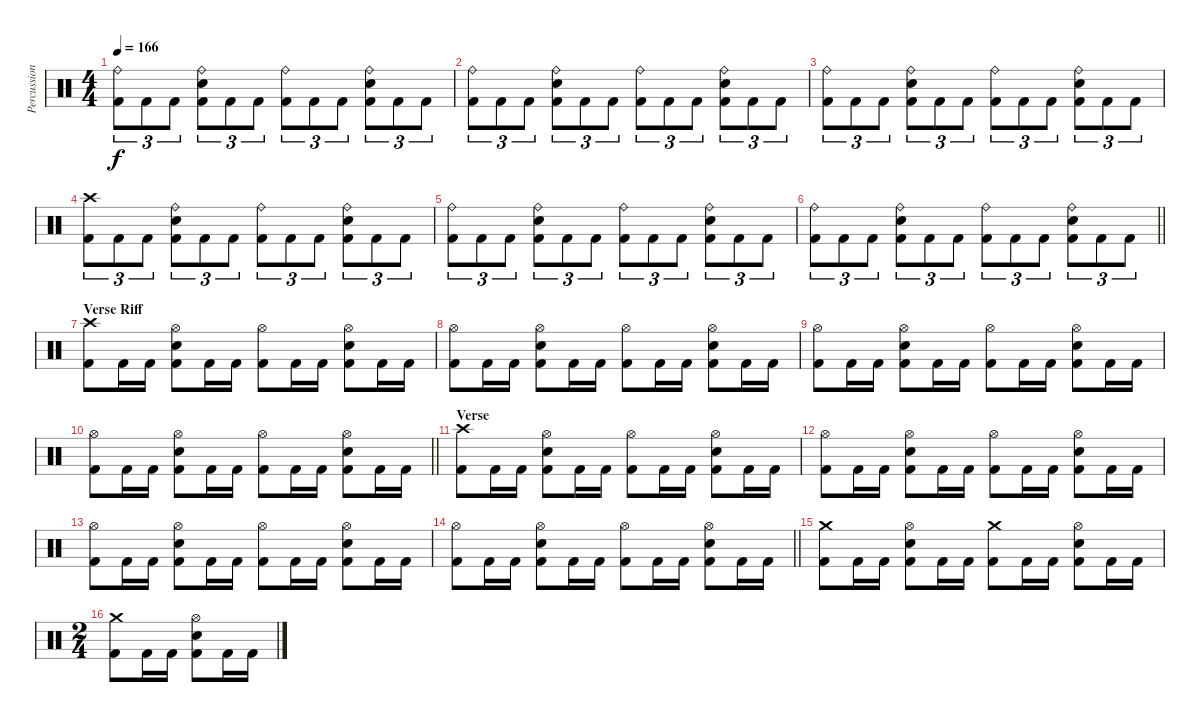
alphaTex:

\track ("Percussion" "Percussion") {instrument percussion}
\staff {score}
\articulation defaults
\ts (4 4)
\tempo 166
\clef neutral
\ks c
("Ride (bell)" "Kick (hit) 2").8{tu (3 2) dy f} "Kick (hit) 2".8{tu (3 2)} "Kick (hit) 2".8{tu (3 2)} ("Ride (bell)" "Snare (hit) 2" "Kick (hit) 2").8{tu (3 2)} "Kick (hit) 2".8{tu (3 2)} "Kick (hit) 2".8{tu (3 2)} ("Ride (bell)" "Kick (hit) 2").8{tu (3 2)} "Kick (hit) 2".8{tu (3 2)} "Kick (hit) 2".8{tu (3 2)} ("Ride (bell)" "Snare (hit) 2" "Kick (hit) 2").8{tu (3 2)} "Kick (hit) 2".8{tu (3 2)} "Kick (hit) 2".8{tu (3 2)} |
("Ride (bell)" "Kick (hit) 2").8{tu (3 2)} "Kick (hit) 2".8{tu (3 2)} "Kick (hit) 2".8{tu (3 2)} ("Ride (bell)" "Snare (hit) 2" "Kick (hit) 2").8{tu (3 2)} "Kick (hit) 2".8{tu (3 2)} "Kick (hit) 2".8{tu (3 2)} ("Ride (bell)" "Kick (hit) 2").8{tu (3 2)} "Kick (hit) 2".8{tu (3 2)} "Kick (hit) 2".8{tu (3 2)} ("Ride (bell)" "Snare (hit) 2" "Kick (hit) 2").8{tu (3 2)} "Kick (hit) 2".8{tu (3 2)} "Kick (hit) 2".8{tu (3 2)} |
("Ride (bell)" "Kick (hit) 2").8{tu (3 2)} "Kick (hit) 2".8{tu (3 2)} "Kick (hit) 2".8{tu (3 2)} ("Ride (bell)" "Snare (hit) 2" "Kick (hit) 2").8{tu (3 2)} "Kick (hit) 2".8{tu (3 2)} "Kick (hit) 2".8{tu (3 2)} ("Ride (bell)" "Kick (hit) 2").8{tu (3 2)} "Kick (hit) 2".8{tu (3 2)} "Kick (hit) 2".8{tu (3 2)} ("Ride (bell)" "Snare (hit) 2" "Kick (hit) 2").8{tu (3 2)} "Kick (hit) 2".8{tu (3 2)} "Kick (hit) 2".8{tu (3 2)} |
("Crash high (hit)" "Kick (hit) 2").8{tu (3 2)} "Kick (hit) 2".8{tu (3 2)} "Kick (hit) 2".8{tu (3 2)} ("Ride (bell)" "Snare (hit) 2" "Kick (hit) 2").8{tu (3 2)} "Kick (hit) 2".8{tu (3 2)} "Kick (hit) 2".8{tu (3 2)} ("Ride (bell)" "Kick (hit) 2").8{tu (3 2)} "Kick (hit) 2".8{tu (3 2)} "Kick (hit) 2".8{tu (3 2)} ("Ride (bell)" "Snare (hit) 2" "Kick (hit) 2").8{tu (3 2)} "Kick (hit) 2".8{tu (3 2)} "Kick (hit) 2".8{tu (3 2)} |
("Ride (bell)" "Kick (hit) 2").8{tu (3 2)} "Kick (hit) 2".8{tu (3 2)} "Kick (hit) 2".8{tu (3 2)} ("Ride (bell)" "Snare (hit) 2" "Kick (hit) 2").8{tu (3 2)} "Kick (hit) 2".8{tu (3 2)} "Kick (hit) 2".8{tu (3 2)} ("Ride (bell)" "Kick (hit) 2").8{tu (3 2)} "Kick (hit) 2".8{tu (3 2)} "Kick (hit) 2".8{tu (3 2)} ("Ride (bell)" "Snare (hit) 2" "Kick (hit) 2").8{tu (3 2)} "Kick (hit) 2".8{tu (3 2)} "Kick (hit) 2".8{tu (3 2)} |
\barLineRight lightlight
("Ride (bell)" "Kick (hit) 2").8{tu (3 2)} "Kick (hit) 2".8{tu (3 2)} "Kick (hit) 2".8{tu (3 2)} ("Ride (bell)" "Snare (hit) 2" "Kick (hit) 2").8{tu (3 2)} "Kick (hit) 2".8{tu (3 2)} "Kick (hit) 2".8{tu (3 2)} ("Ride (bell)" "Kick (hit) 2").8{tu (3 2)} "Kick (hit) 2".8{tu (3 2)} "Kick (hit) 2".8{tu (3 2)} ("Ride (bell)" "Snare (hit) 2" "Kick (hit) 2").8{tu (3 2)} "Kick (hit) 2".8{tu (3 2)} "Kick (hit) 2".8{tu (3 2)} |
\section ("" "Verse Riff")
("Crash high (hit)" "Kick (hit) 2").8 "Kick (hit) 2".16 "Kick (hit) 2".16 ("Hi-Hat (open)" "Snare (hit) 2" "Kick (hit) 2").8 "Kick (hit) 2".16 "Kick (hit) 2".16 ("Hi-Hat (open)" "Kick (hit) 2").8 "Kick (hit) 2".16 "Kick (hit) 2".16 ("Hi-Hat (open)" "Snare (hit) 2" "Kick (hit) 2").8 "Kick (hit) 2".16 "Kick (hit) 2".16 |
("Hi-Hat (open)" "Kick (hit) 2").8 "Kick (hit) 2".16 "Kick (hit) 2".16 ("Hi-Hat (open)" "Snare (hit) 2" "Kick (hit) 2").8 "Kick (hit) 2".16 "Kick (hit) 2".16 ("Hi-Hat (open)" "Kick (hit) 2").8 "Kick (hit) 2".16 "Kick (hit) 2".16 ("Hi-Hat (open)" "Snare (hit) 2" "Kick (hit) 2").8 "Kick (hit) 2".16 "Kick (hit) 2".16 |
("Hi-Hat (open)" "Kick (hit) 2").8 "Kick (hit) 2".16 "Kick (hit) 2".16 ("Hi-Hat (open)" "Snare (hit) 2" "Kick (hit) 2").8 "Kick (hit) 2".16 "Kick (hit) 2".16 ("Hi-Hat (open)" "Kick (hit) 2").8 "Kick (hit) 2".16 "Kick (hit) 2".16 ("Hi-Hat (open)" "Snare (hit) 2" "Kick (hit) 2").8 "Kick (hit) 2".16 "Kick (hit) 2".16 |
\barLineRight lightlight
("Hi-Hat (open)" "Kick (hit) 2").8 "Kick (hit) 2".16 "Kick (hit) 2".16 ("Hi-Hat (open)" "Snare (hit) 2" "Kick (hit) 2").8 "Kick (hit) 2".16 "Kick (hit) 2".16 ("Hi-Hat (open)" "Kick (hit) 2").8 "Kick (hit) 2".16 "Kick (hit) 2".16 ("Hi-Hat (open)" "Snare (hit) 2" "Kick (hit) 2").8 "Kick (hit) 2".16 "Kick (hit) 2".16 |
\section ("" "Verse")
("Crash high (hit)" "Kick (hit) 2").8 "Kick (hit) 2".16 "Kick (hit) 2".16 ("Hi-Hat (open)" "Snare (hit) 2" "Kick (hit) 2").8 "Kick (hit) 2".16 "Kick (hit) 2".16 ("Hi-Hat (open)" "Kick (hit) 2").8 "Kick (hit) 2".16 "Kick (hit) 2".16 ("Hi-Hat (open)" "Snare (hit) 2" "Kick (hit) 2").8 "Kick (hit) 2".16 "Kick (hit) 2".16 |
("Hi-Hat (open)" "Kick (hit) 2").8 "Kick (hit) 2".16 "Kick (hit) 2".16 ("Hi-Hat (open)" "Snare (hit) 2" "Kick (hit) 2").8 "Kick (hit) 2".16 "Kick (hit) 2".16 ("Hi-Hat (open)" "Kick (hit) 2").8 "Kick (hit) 2".16 "Kick (hit) 2".16 ("Hi-Hat (open)" "Snare (hit) 2" "Kick (hit) 2").8 "Kick (hit) 2".16 "Kick (hit) 2".16 |
("Hi-Hat (open)" "Kick (hit) 2").8 "Kick (hit) 2".16 "Kick (hit) 2".16 ("Hi-Hat (open)" "Snare (hit) 2" "Kick (hit) 2").8 "Kick (hit) 2".16 "Kick (hit) 2".16 ("Hi-Hat (open)" "Kick (hit) 2").8 "Kick (hit) 2".16 "Kick (hit) 2".16 ("Hi-Hat (open)" "Snare (hit) 2" "Kick (hit) 2").8 "Kick (hit) 2".16 "Kick (hit) 2".16 |
\barLineRight lightlight
("Hi-Hat (open)" "Kick (hit) 2").8 "Kick (hit) 2".16 "Kick (hit) 2".16 ("Hi-Hat (open)" "Snare (hit) 2" "Kick (hit) 2").8 "Kick (hit) 2".16 "Kick (hit) 2".16 ("Hi-Hat (open)" "Kick (hit) 2").8 "Kick (hit) 2".16 "Kick (hit) 2".16 ("Hi-Hat (open)" "Snare (hit) 2" "Kick (hit) 2").8 "Kick (hit) 2".16 "Kick (hit) 2".16 |
("Crash medium (hit)" "Kick (hit) 2").8 "Kick (hit) 2".16 "Kick (hit) 2".16 ("Hi-Hat (open)" "Snare (hit) 2" "Kick (hit) 2").8 "Kick (hit) 2".16 "Kick (hit) 2".16 ("Crash medium (hit)" "Kick (hit) 2").8 "Kick (hit) 2".16 "Kick (hit) 2".16 ("Hi-Hat (open)" "Snare (hit) 2" "Kick (hit) 2").8 "Kick (hit) 2".16 "Kick (hit) 2".16 |
\ts (2 4)
("Crash medium (hit)" "Kick (hit) 2").8 "Kick (hit) 2".16 "Kick (hit) 2".16 ("Hi-Hat (open)" "Snare (hit) 2" "Kick (hit) 2").8 "Kick (hit) 2".16 "Kick (hit) 2".16
